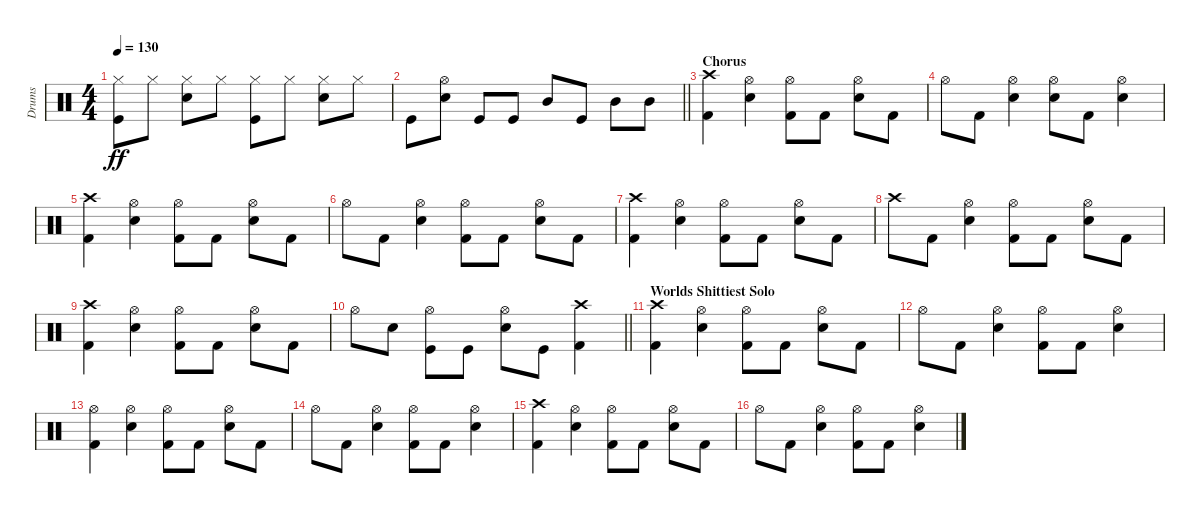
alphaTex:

\track ("Drums" "Drums") {instrument percussion}
\staff {score}
\articulation defaults
\ts (4 4)
\tempo 130
\clef neutral
\ks c
("Hi-Hat (closed)" "Kick (hit)").8{dy ff} "Hi-Hat (closed)".8 ("Hi-Hat (closed)" "Snare (hit) 2").8 "Hi-Hat (closed)".8 ("Hi-Hat (closed)" "Kick (hit)").8 "Hi-Hat (closed)".8 ("Hi-Hat (closed)" "Snare (hit) 2").8 "Hi-Hat (closed)".8 |
\barLineRight lightlight "Kick (hit)".8
("Hi-Hat (open)" "Snare (hit) 2").8 "Kick (hit)".8 "Kick (hit)".8 "Mid Tom (hit)".8 "Kick (hit)".8 "Mid Tom (hit)".8 "Mid Tom (hit)".8 |
\section ("" "Chorus")
("Crash high (hit)" "Kick (hit) 2").4 ("Hi-Hat (open)" "Snare (hit) 2").4 ("Hi-Hat (open)" "Kick (hit) 2").8 "Kick (hit) 2".8 ("Hi-Hat (open)" "Snare (hit) 2").8 "Kick (hit) 2".8 |
"Hi-Hat (open)".8 "Kick (hit) 2".8 ("Hi-Hat (open)" "Snare (hit) 2").4 ("Hi-Hat (open)" "Snare (hit) 2").8 "Kick (hit) 2".8 ("Hi-Hat (open)" "Snare (hit) 2").4 |
("Crash high (hit)" "Kick (hit) 2").4 ("Hi-Hat (open)" "Snare (hit) 2").4 ("Hi-Hat (open)" "Kick (hit) 2").8 "Kick (hit) 2".8 ("Hi-Hat (open)" "Snare (hit) 2").8 "Kick (hit) 2".8 |
"Hi-Hat (open)".8 "Kick (hit) 2".8 ("Hi-Hat (open)" "Snare (hit) 2").4 ("Hi-Hat (open)" "Kick (hit) 2").8 "Kick (hit) 2".8 ("Hi-Hat (open)" "Snare (hit) 2").8 "Kick (hit) 2".8 |
("Crash high (hit)" "Kick (hit) 2").4 ("Hi-Hat (open)" "Snare (hit) 2").4 ("Hi-Hat (open)" "Kick (hit) 2").8 "Kick (hit) 2".8 ("Hi-Hat (open)" "Snare (hit) 2").8 "Kick (hit) 2".8 |
"Crash high (hit)".8 "Kick (hit) 2".8 ("Hi-Hat (open)" "Snare (hit) 2").4 ("Hi-Hat (open)" "Kick (hit) 2").8 "Kick (hit) 2".8 ("Hi-Hat (open)" "Snare (hit) 2").8 "Kick (hit) 2".8 |
("Crash high (hit)" "Kick (hit) 2").4 ("Hi-Hat (open)" "Snare (hit) 2").4 ("Hi-Hat (open)" "Kick (hit) 2").8 "Kick (hit) 2".8 ("Hi-Hat (open)" "Snare (hit) 2").8 "Kick (hit) 2".8 |
\barLineRight lightlight "Hi-Hat (open)".8 "Snare (hit) 2".8
("Hi-Hat (open)" "Kick (hit)").8 "Kick (hit)".8 ("Hi-Hat (open)" "Snare (hit) 2").8 "Kick (hit)".8 ("Crash high (hit)" "Kick (hit) 2").4 |
\section ("" "Worlds Shittiest Solo")
("Crash high (hit)" "Kick (hit) 2").4 ("Hi-Hat (open)" "Snare (hit) 2").4 ("Hi-Hat (open)" "Kick (hit) 2").8 "Kick (hit) 2".8 ("Hi-Hat (open)" "Snare (hit) 2").8 "Kick (hit) 2".8 |
"Hi-Hat (open)".8 "Kick (hit) 2".8 ("Hi-Hat (open)" "Snare (hit) 2").4 ("Hi-Hat (open)" "Kick (hit) 2").8 "Kick (hit) 2".8 ("Hi-Hat (open)" "Snare (hit) 2").4 |
("Hi-Hat (open)" "Kick (hit) 2").4 ("Hi-Hat (open)" "Snare (hit) 2").4 ("Hi-Hat (open)" "Kick (hit) 2").8 "Kick (hit) 2".8 ("Hi-Hat (open)" "Snare (hit) 2").8 "Kick (hit) 2".8 |
"Hi-Hat (open)".8 "Kick (hit) 2".8 ("Hi-Hat (open)" "Snare (hit) 2").4 ("Hi-Hat (open)" "Kick (hit) 2").8 "Kick (hit) 2".8 ("Hi-Hat (open)" "Snare (hit) 2").4 |
("Crash high (hit)" "Kick (hit) 2").4 ("Hi-Hat (open)" "Snare (hit) 2").4 ("Hi-Hat (open)" "Kick (hit) 2").8 "Kick (hit) 2".8 ("Hi-Hat (open)" "Snare (hit) 2").8 "Kick (hit) 2".8 |
"Hi-Hat (open)".8 "Kick (hit) 2".8 ("Hi-Hat (open)" "Snare (hit) 2").4 ("Hi-Hat (open)" "Kick (hit) 2").8 "Kick (hit) 2".8 ("Hi-Hat (open)" "Snare (hit) 2").4
